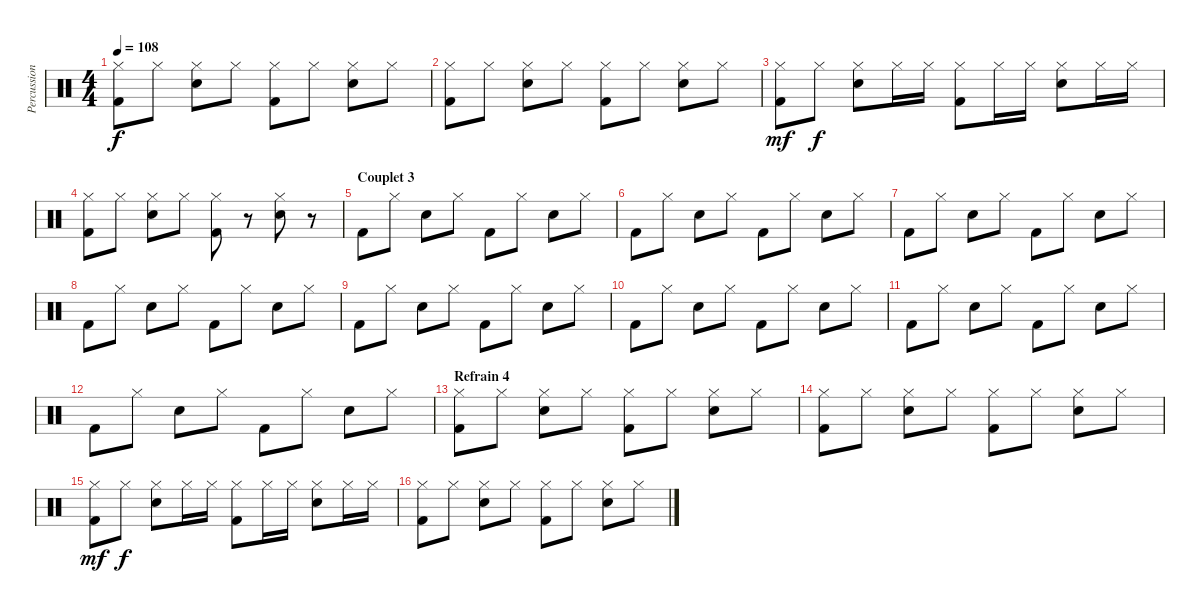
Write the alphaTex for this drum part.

\track ("Percussions" "Percussion") {instrument percussion}
\staff {score}
\articulation defaults
\ts (4 4)
\tempo 108
\clef neutral
\ks c
("Hi-Hat (closed)" "Kick (hit) 2").8{dy f} "Hi-Hat (closed)".8 ("Hi-Hat (closed)" "Electric Snare (hit)").8 "Hi-Hat (closed)".8 ("Hi-Hat (closed)" "Kick (hit) 2").8 "Hi-Hat (closed)".8 ("Hi-Hat (closed)" "Electric Snare (hit)").8 "Hi-Hat (closed)".8 |
("Hi-Hat (closed)" "Kick (hit) 2").8 "Hi-Hat (closed)".8 ("Hi-Hat (closed)" "Electric Snare (hit)").8 "Hi-Hat (closed)".8 ("Hi-Hat (closed)" "Kick (hit) 2").8 "Hi-Hat (closed)".8 ("Hi-Hat (closed)" "Electric Snare (hit)").8 "Hi-Hat (closed)".8 |
("Hi-Hat (closed)" "Kick (hit) 2").8{dy mf} "Hi-Hat (closed)".8{dy f} ("Hi-Hat (closed)" "Electric Snare (hit)").8 "Hi-Hat (closed)".16 "Hi-Hat (closed)".16 ("Hi-Hat (closed)" "Kick (hit) 2").8 "Hi-Hat (closed)".16 "Hi-Hat (closed)".16 ("Hi-Hat (closed)" "Electric Snare (hit)").8 "Hi-Hat (closed)".16 "Hi-Hat (closed)".16 |
("Hi-Hat (closed)" "Kick (hit) 2").8 "Hi-Hat (closed)".8 ("Hi-Hat (closed)" "Electric Snare (hit)").8 "Hi-Hat (closed)".8 ("Hi-Hat (closed)" "Kick (hit) 2").8 r.8 ("Hi-Hat (closed)" "Electric Snare (hit)").8 r.8 |
\section ("" "Couplet 3")
"Kick (hit) 2".8 "Hi-Hat (closed)".8 "Electric Snare (hit)".8 "Hi-Hat (closed)".8 "Kick (hit) 2".8 "Hi-Hat (closed)".8 "Electric Snare (hit)".8 "Hi-Hat (closed)".8 |
"Kick (hit) 2".8 "Hi-Hat (closed)".8 "Electric Snare (hit)".8 "Hi-Hat (closed)".8 "Kick (hit) 2".8 "Hi-Hat (closed)".8 "Electric Snare (hit)".8 "Hi-Hat (closed)".8 |
"Kick (hit) 2".8 "Hi-Hat (closed)".8 "Electric Snare (hit)".8 "Hi-Hat (closed)".8 "Kick (hit) 2".8 "Hi-Hat (closed)".8 "Electric Snare (hit)".8 "Hi-Hat (closed)".8 |
"Kick (hit) 2".8 "Hi-Hat (closed)".8 "Electric Snare (hit)".8 "Hi-Hat (closed)".8 "Kick (hit) 2".8 "Hi-Hat (closed)".8 "Electric Snare (hit)".8 "Hi-Hat (closed)".8 |
"Kick (hit) 2".8 "Hi-Hat (closed)".8 "Electric Snare (hit)".8 "Hi-Hat (closed)".8 "Kick (hit) 2".8 "Hi-Hat (closed)".8 "Electric Snare (hit)".8 "Hi-Hat (closed)".8 |
"Kick (hit) 2".8 "Hi-Hat (closed)".8 "Electric Snare (hit)".8 "Hi-Hat (closed)".8 "Kick (hit) 2".8 "Hi-Hat (closed)".8 "Electric Snare (hit)".8 "Hi-Hat (closed)".8 |
"Kick (hit) 2".8 "Hi-Hat (closed)".8 "Electric Snare (hit)".8 "Hi-Hat (closed)".8 "Kick (hit) 2".8 "Hi-Hat (closed)".8 "Electric Snare (hit)".8 "Hi-Hat (closed)".8 |
"Kick (hit) 2".8 "Hi-Hat (closed)".8 "Electric Snare (hit)".8 "Hi-Hat (closed)".8 "Kick (hit) 2".8 "Hi-Hat (closed)".8 "Electric Snare (hit)".8 "Hi-Hat (closed)".8 |
\section ("" "Refrain 4")
("Hi-Hat (closed)" "Kick (hit) 2").8 "Hi-Hat (closed)".8 ("Hi-Hat (closed)" "Electric Snare (hit)").8 "Hi-Hat (closed)".8 ("Hi-Hat (closed)" "Kick (hit) 2").8 "Hi-Hat (closed)".8 ("Hi-Hat (closed)" "Electric Snare (hit)").8 "Hi-Hat (closed)".8 |
("Hi-Hat (closed)" "Kick (hit) 2").8 "Hi-Hat (closed)".8 ("Hi-Hat (closed)" "Electric Snare (hit)").8 "Hi-Hat (closed)".8 ("Hi-Hat (closed)" "Kick (hit) 2").8 "Hi-Hat (closed)".8 ("Hi-Hat (closed)" "Electric Snare (hit)").8 "Hi-Hat (closed)".8 |
("Hi-Hat (closed)" "Kick (hit) 2").8{dy mf} "Hi-Hat (closed)".8{dy f} ("Hi-Hat (closed)" "Electric Snare (hit)").8 "Hi-Hat (closed)".16 "Hi-Hat (closed)".16 ("Hi-Hat (closed)" "Kick (hit) 2").8 "Hi-Hat (closed)".16 "Hi-Hat (closed)".16 ("Hi-Hat (closed)" "Electric Snare (hit)").8 "Hi-Hat (closed)".16 "Hi-Hat (closed)".16 |
("Hi-Hat (closed)" "Kick (hit) 2").8 "Hi-Hat (closed)".8 ("Hi-Hat (closed)" "Electric Snare (hit)").8 "Hi-Hat (closed)".8 ("Hi-Hat (closed)" "Kick (hit) 2").8 "Hi-Hat (closed)".8 ("Hi-Hat (closed)" "Electric Snare (hit)").8 "Hi-Hat (closed)".8
